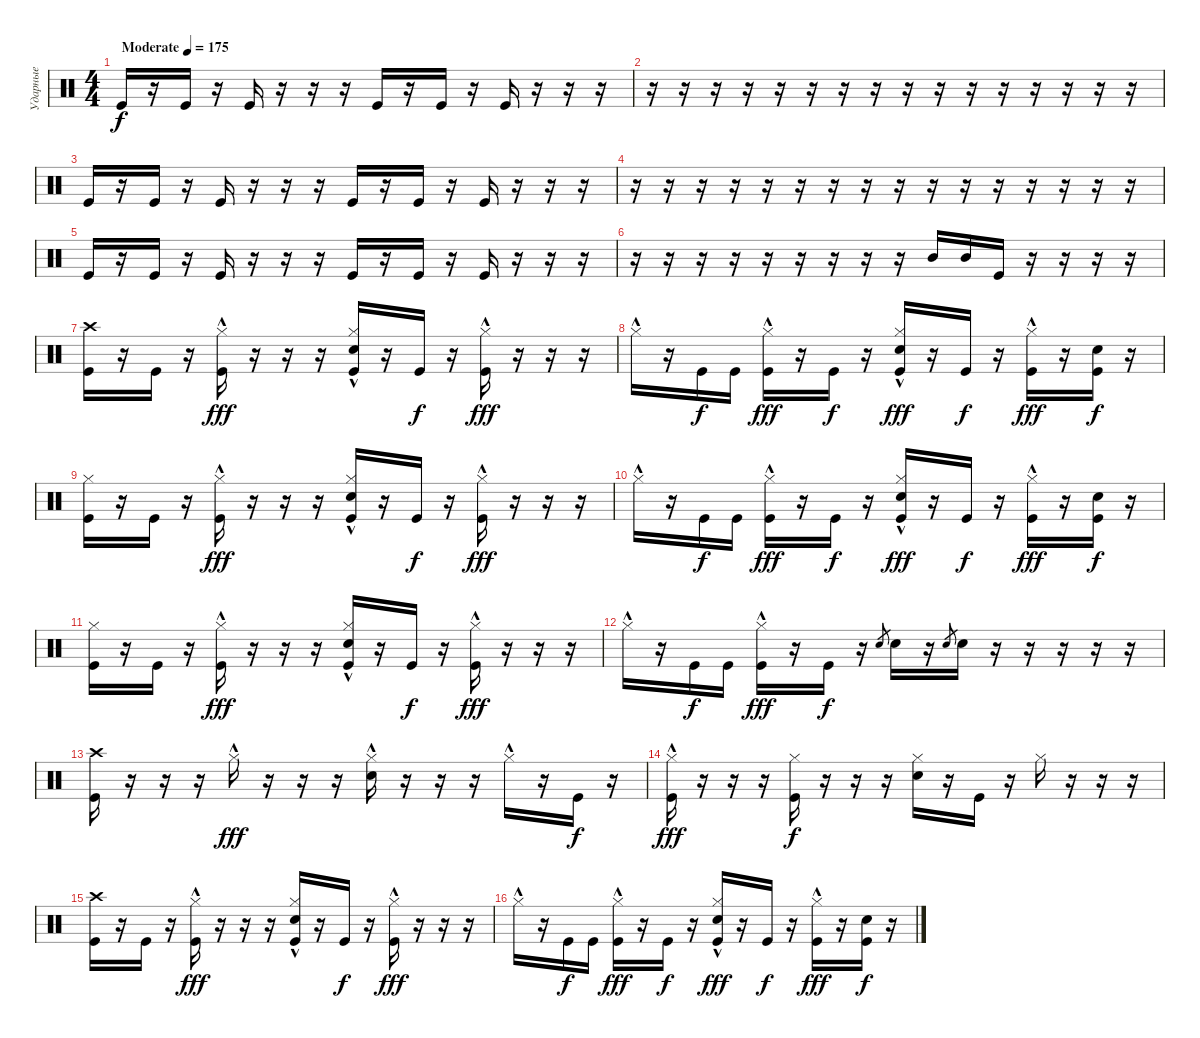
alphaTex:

\track ("Ударные" "Ударные") {instrument percussion}
\staff {score}
\articulation defaults
\ts (4 4)
\tempo (175 "Moderate")
\clef neutral
\ks c "Kick (hit)".16{dy f}
r.16 "Kick (hit)".16 r.16 "Kick (hit)".16 r.16 r.16 r.16 "Kick (hit)".16 r.16 "Kick (hit)".16 r.16 "Kick (hit)".16 r.16 r.16 r.16 |
r.16 r.16 r.16 r.16 r.16 r.16 r.16 r.16 r.16 r.16 r.16 r.16 r.16 r.16 r.16 r.16 |
"Kick (hit)".16 r.16 "Kick (hit)".16 r.16 "Kick (hit)".16 r.16 r.16 r.16 "Kick (hit)".16 r.16 "Kick (hit)".16 r.16 "Kick (hit)".16 r.16 r.16 r.16 |
r.16 r.16 r.16 r.16 r.16 r.16 r.16 r.16 r.16 r.16 r.16 r.16 r.16 r.16 r.16 r.16 |
"Kick (hit)".16 r.16 "Kick (hit)".16 r.16 "Kick (hit)".16 r.16 r.16 r.16 "Kick (hit)".16 r.16 "Kick (hit)".16 r.16 "Kick (hit)".16 r.16 r.16 r.16 |
r.16 r.16 r.16 r.16 r.16 r.16 r.16 r.16 r.16 "Mid Tom (hit)".16 "Mid Tom (hit)".16 "Kick (hit)".16 r.16 r.16 r.16 r.16 |
("Crash high (hit)" "Kick (hit)").16 r.16 "Kick (hit)".16 r.16 ("Hi-Hat (closed)"{hac} "Kick (hit)").16{dy fff} r.16 r.16 r.16 ("Hi-Hat (closed)"{hac} "Electric Snare (hit)" "Kick (hit)").16 r.16 "Kick (hit)".16{dy f} r.16 ("Hi-Hat (closed)"{hac} "Kick (hit)").16{dy fff} r.16 r.16 r.16 |
"Hi-Hat (closed)"{hac}.16 r.16 "Kick (hit)".16{dy f} "Kick (hit)".16 ("Hi-Hat (closed)"{hac} "Kick (hit)").16{dy fff} r.16 "Kick (hit)".16{dy f} r.16 ("Electric Snare (hit)" "Hi-Hat (closed)"{hac} "Kick (hit)").16{dy fff} r.16 "Kick (hit)".16{dy f} r.16 ("Hi-Hat (closed)"{hac} "Kick (hit)").16{dy fff} r.16 ("Electric Snare (hit)" "Kick (hit)").16{dy f} r.16 |
("Hi-Hat (closed)" "Kick (hit)").16 r.16 "Kick (hit)".16 r.16 ("Hi-Hat (closed)"{hac} "Kick (hit)").16{dy fff} r.16 r.16 r.16 ("Hi-Hat (closed)"{hac} "Electric Snare (hit)" "Kick (hit)").16 r.16 "Kick (hit)".16{dy f} r.16 ("Hi-Hat (closed)"{hac} "Kick (hit)").16{dy fff} r.16 r.16 r.16 |
"Hi-Hat (closed)"{hac}.16 r.16 "Kick (hit)".16{dy f} "Kick (hit)".16 ("Hi-Hat (closed)"{hac} "Kick (hit)").16{dy fff} r.16 "Kick (hit)".16{dy f} r.16 ("Electric Snare (hit)" "Hi-Hat (closed)"{hac} "Kick (hit)").16{dy fff} r.16 "Kick (hit)".16{dy f} r.16 ("Hi-Hat (closed)"{hac} "Kick (hit)").16{dy fff} r.16 ("Electric Snare (hit)" "Kick (hit)").16{dy f} r.16 |
("Hi-Hat (closed)" "Kick (hit)").16 r.16 "Kick (hit)".16 r.16 ("Hi-Hat (closed)"{hac} "Kick (hit)").16{dy fff} r.16 r.16 r.16 ("Hi-Hat (closed)"{hac} "Electric Snare (hit)" "Kick (hit)").16 r.16 "Kick (hit)".16{dy f} r.16 ("Hi-Hat (closed)"{hac} "Kick (hit)").16{dy fff} r.16 r.16 r.16 |
"Hi-Hat (closed)"{hac}.16 r.16 "Kick (hit)".16{dy f} "Kick (hit)".16 ("Hi-Hat (closed)"{hac} "Kick (hit)").16{dy fff} r.16 "Kick (hit)".16{dy f} r.16 "Electric Snare (hit)".8{gr} "Electric Snare (hit)".16 r.16 "Electric Snare (hit)".8{gr} "Electric Snare (hit)".16 r.16 r.16 r.16 r.16 r.16 |
("Crash high (hit)" "Kick (hit)").16 r.16 r.16 r.16 "Hi-Hat (closed)"{hac}.16{dy fff} r.16 r.16 r.16 ("Hi-Hat (closed)"{hac} "Electric Snare (hit)").16 r.16 r.16 r.16 "Hi-Hat (closed)"{hac}.16 r.16 "Kick (hit)".16{dy f} r.16 |
("Hi-Hat (closed)"{hac} "Kick (hit)").16{dy fff} r.16 r.16 r.16 ("Hi-Hat (closed)" "Kick (hit)").16{dy f} r.16 r.16 r.16 ("Hi-Hat (closed)" "Electric Snare (hit)").16 r.16 "Kick (hit)".16 r.16 "Hi-Hat (closed)".16 r.16 r.16 r.16 |
("Crash high (hit)" "Kick (hit)").16 r.16 "Kick (hit)".16 r.16 ("Hi-Hat (closed)"{hac} "Kick (hit)").16{dy fff} r.16 r.16 r.16 ("Hi-Hat (closed)"{hac} "Electric Snare (hit)" "Kick (hit)").16 r.16 "Kick (hit)".16{dy f} r.16 ("Hi-Hat (closed)"{hac} "Kick (hit)").16{dy fff} r.16 r.16 r.16 |
"Hi-Hat (closed)"{hac}.16 r.16 "Kick (hit)".16{dy f} "Kick (hit)".16 ("Hi-Hat (closed)"{hac} "Kick (hit)").16{dy fff} r.16 "Kick (hit)".16{dy f} r.16 ("Electric Snare (hit)" "Hi-Hat (closed)"{hac} "Kick (hit)").16{dy fff} r.16 "Kick (hit)".16{dy f} r.16 ("Hi-Hat (closed)"{hac} "Kick (hit)").16{dy fff} r.16 ("Electric Snare (hit)" "Kick (hit)").16{dy f} r.16
